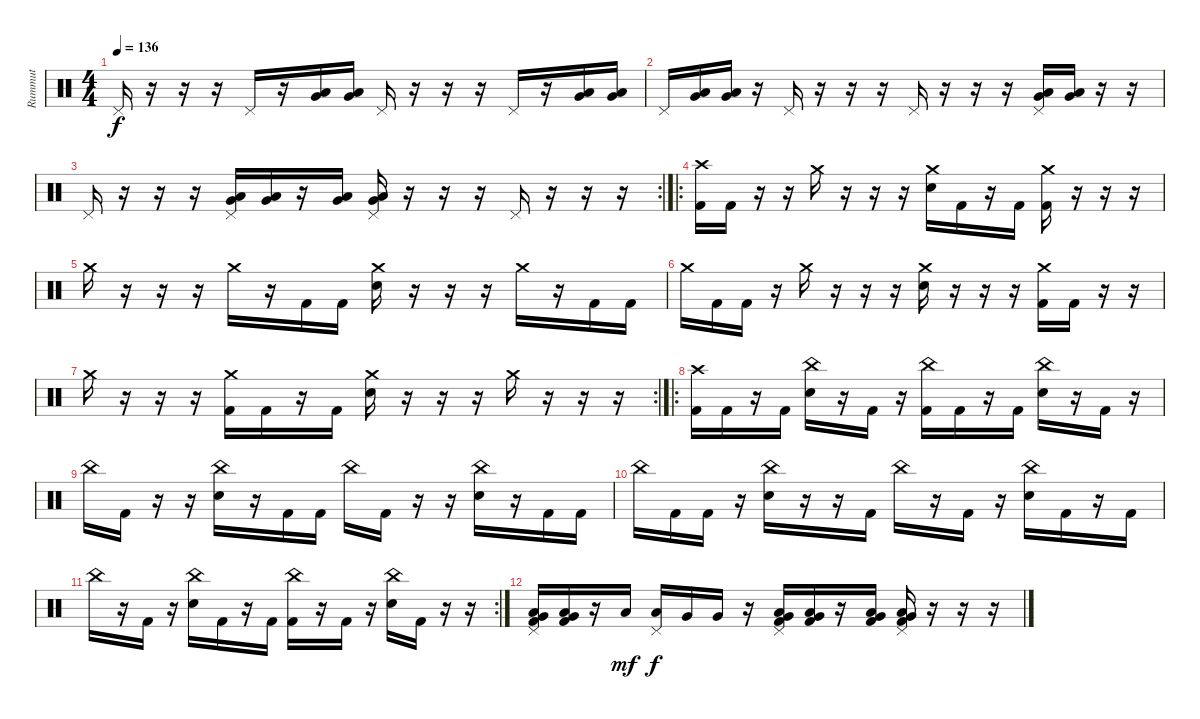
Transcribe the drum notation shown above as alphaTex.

\track ("Rummut" "Rummut") {instrument percussion}
\staff {score}
\articulation defaults
\ts (4 4)
\tempo 136
\clef neutral
\ks c "Pedal Hi-Hat (hit)".16{dy f}
r.16 r.16 r.16 "Pedal Hi-Hat (hit)".16 r.16 ("Very Low Tom (hit)" "Low Floor Tom (hit)").16 ("Very Low Tom (hit)" "Low Floor Tom (hit)").16 "Pedal Hi-Hat (hit)".16 r.16 r.16 r.16 "Pedal Hi-Hat (hit)".16 r.16 ("Very Low Tom (hit)" "Low Floor Tom (hit)").16 ("Very Low Tom (hit)" "Low Floor Tom (hit)").16 |
"Pedal Hi-Hat (hit)".16 ("Very Low Tom (hit)" "Low Floor Tom (hit)").16 ("Very Low Tom (hit)" "Low Floor Tom (hit)").16 r.16 "Pedal Hi-Hat (hit)".16 r.16 r.16 r.16 "Pedal Hi-Hat (hit)".16 r.16 r.16 r.16 ("Pedal Hi-Hat (hit)" "Very Low Tom (hit)" "Low Floor Tom (hit)").16 ("Very Low Tom (hit)" "Low Floor Tom (hit)").16 r.16 r.16 |
\rc 2 "Pedal Hi-Hat (hit)".16
r.16 r.16 r.16 ("Pedal Hi-Hat (hit)" "Very Low Tom (hit)" "Low Floor Tom (hit)").16 ("Very Low Tom (hit)" "Low Floor Tom (hit)").16 r.16 ("Very Low Tom (hit)" "Low Floor Tom (hit)").16 ("Pedal Hi-Hat (hit)" "Very Low Tom (hit)" "Low Floor Tom (hit)").16 r.16 r.16 r.16 "Pedal Hi-Hat (hit)".16 r.16 r.16 r.16 |
\ro
("Crash high (hit)" "Kick (hit) 2").16 "Kick (hit) 2".16 r.16 r.16 "Crash medium (hit)".16 r.16 r.16 r.16 ("Crash medium (hit)" "Electric Snare (hit)").16 "Kick (hit) 2".16 r.16 "Kick (hit) 2".16 ("Crash medium (hit)" "Kick (hit) 2").16 r.16 r.16 r.16 |
"Crash medium (hit)".16 r.16 r.16 r.16 "Crash medium (hit)".16 r.16 "Kick (hit) 2".16 "Kick (hit) 2".16 ("Crash medium (hit)" "Electric Snare (hit)").16 r.16 r.16 r.16 "Crash medium (hit)".16 r.16 "Kick (hit) 2".16 "Kick (hit) 2".16 |
"Crash medium (hit)".16 "Kick (hit) 2".16 "Kick (hit) 2".16 r.16 "Crash medium (hit)".16 r.16 r.16 r.16 ("Crash medium (hit)" "Electric Snare (hit)").16 r.16 r.16 r.16 ("Crash medium (hit)" "Kick (hit) 2").16 "Kick (hit) 2".16 r.16 r.16 |
\rc 2 "Crash medium (hit)".16
r.16 r.16 r.16 ("Crash medium (hit)" "Kick (hit) 2").16 "Kick (hit) 2".16 r.16 "Kick (hit) 2".16 ("Crash medium (hit)" "Electric Snare (hit)").16 r.16 r.16 r.16 "Crash medium (hit)".16 r.16 r.16 r.16 |
\ro
("Crash high (hit)" "Kick (hit) 2").16 "Kick (hit) 2".16 r.16 "Kick (hit) 2".16 ("China (hit)" "Electric Snare (hit)").16 r.16 "Kick (hit) 2".16 r.16 ("China (hit)" "Kick (hit) 2").16 "Kick (hit) 2".16 r.16 "Kick (hit) 2".16 ("China (hit)" "Electric Snare (hit)").16 r.16 "Kick (hit) 2".16 r.16 |
"China (hit)".16 "Kick (hit) 2".16 r.16 r.16 ("China (hit)" "Electric Snare (hit)").16 r.16 "Kick (hit) 2".16 "Kick (hit) 2".16 "China (hit)".16 "Kick (hit) 2".16 r.16 r.16 ("China (hit)" "Electric Snare (hit)").16 r.16 "Kick (hit) 2".16 "Kick (hit) 2".16 |
"China (hit)".16 "Kick (hit) 2".16 "Kick (hit) 2".16 r.16 ("China (hit)" "Electric Snare (hit)").16 r.16 r.16 "Kick (hit) 2".16 "China (hit)".16 r.16 "Kick (hit) 2".16 r.16 ("China (hit)" "Electric Snare (hit)").16 "Kick (hit) 2".16 r.16 "Kick (hit) 2".16 |
\rc 2 "China (hit)".16
r.16 "Kick (hit) 2".16 r.16 ("China (hit)" "Electric Snare (hit)").16 "Kick (hit) 2".16 r.16 "Kick (hit) 2".16 ("China (hit)" "Kick (hit) 2").16 r.16 "Kick (hit) 2".16 r.16 ("China (hit)" "Electric Snare (hit)").16 "Kick (hit) 2".16 r.16 r.16 |
("Pedal Hi-Hat (hit)" "Very Low Tom (hit)" "Low Floor Tom (hit)" "Kick (hit) 2").16 ("Very Low Tom (hit)" "Low Floor Tom (hit)" "Kick (hit) 2").16 r.16 "Low Tom (hit)".16{dy mf} ("Pedal Hi-Hat (hit)" "Low Tom (hit)").16{dy f} "Very Low Tom (hit)".16 "Very Low Tom (hit)".16 r.16 ("Pedal Hi-Hat (hit)" "Very Low Tom (hit)" "Low Floor Tom (hit)" "Kick (hit) 2").16 ("Very Low Tom (hit)" "Low Floor Tom (hit)" "Kick (hit) 2").16 r.16 ("Very Low Tom (hit)" "Low Floor Tom (hit)" "Kick (hit) 2").16 ("Pedal Hi-Hat (hit)" "Very Low Tom (hit)" "Low Floor Tom (hit)" "Kick (hit) 2").16 r.16 r.16 r.16
